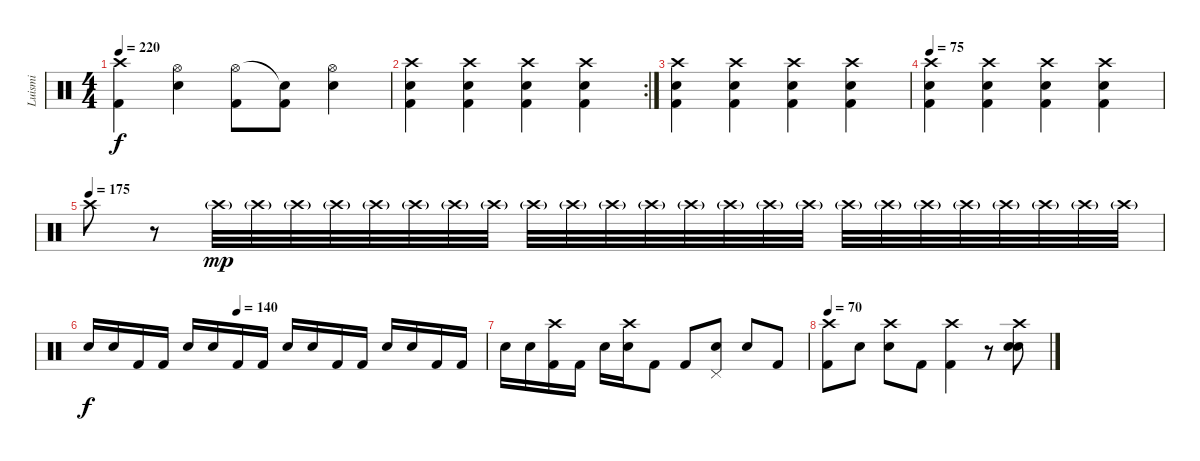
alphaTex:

\track ("Luismi" "Luismi") {instrument percussion}
\staff {score}
\articulation defaults
\ts (4 4)
\tempo 220
\clef neutral
\ks c
("Crash high (hit)" "Kick (hit) 2").4{dy f} ("Hi-Hat (open)" "Snare (hit) 2").4 ("Hi-Hat (open)" "Kick (hit) 2").8 ("Snare (hit)"{t} "Kick (hit) 2").8 ("Hi-Hat (open)" "Snare (hit) 2").4 |
\rc 2
("Crash high (hit)" "Snare (hit) 2" "Kick (hit) 2").4 ("Crash high (hit)" "Snare (hit) 2" "Kick (hit) 2").4 ("Crash high (hit)" "Snare (hit) 2" "Kick (hit) 2").4 ("Crash high (hit)" "Snare (hit) 2" "Kick (hit) 2").4 |
("Crash high (hit)" "Snare (hit) 2" "Kick (hit) 2").4 ("Crash high (hit)" "Snare (hit) 2" "Kick (hit) 2").4 ("Crash high (hit)" "Snare (hit) 2" "Kick (hit) 2").4 ("Crash high (hit)" "Snare (hit) 2" "Kick (hit) 2").4 |
\tempo 75
("Crash high (hit)" "Snare (hit) 2" "Kick (hit) 2").4 ("Crash high (hit)" "Snare (hit) 2" "Kick (hit) 2").4 ("Crash high (hit)" "Snare (hit) 2" "Kick (hit) 2").4 ("Crash high (hit)" "Snare (hit) 2" "Kick (hit) 2").4 |
\tempo (175)
"Crash high (hit)".8 r.8{volume 0} "Crash high (hit)"{g}.32{dy mp volume 16} "Crash high (hit)"{g}.32 "Crash high (hit)"{g}.32 "Crash high (hit)"{g}.32 "Crash high (hit)"{g}.32 "Crash high (hit)"{g}.32 "Crash high (hit)"{g}.32 "Crash high (hit)"{g}.32 "Crash high (hit)"{g}.32 "Crash high (hit)"{g}.32 "Crash high (hit)"{g}.32 "Crash high (hit)"{g}.32 "Crash high (hit)"{g}.32 "Crash high (hit)"{g}.32 "Crash high (hit)"{g}.32 "Crash high (hit)"{g}.32 "Crash high (hit)"{g}.32 "Crash high (hit)"{g}.32 "Crash high (hit)"{g}.32 "Crash high (hit)"{g}.32 "Crash high (hit)"{g}.32 "Crash high (hit)"{g}.32 "Crash high (hit)"{g}.32 "Crash high (hit)"{g}.32 |
\tempo (140 0.375)
"Electric Snare (hit)".16{dy f} "Snare (hit) 2".16 "Kick (hit) 2".16 "Kick (hit) 2".16 "Electric Snare (hit)".16 "Snare (hit) 2".16 "Kick (hit) 2".16 "Kick (hit) 2".16 "Electric Snare (hit)".16 "Snare (hit) 2".16 "Kick (hit) 2".16 "Kick (hit) 2".16 "Electric Snare (hit)".16 "Snare (hit) 2".16 "Kick (hit) 2".16 "Kick (hit) 2".16 |
"Electric Snare (hit)".16 "Snare (hit) 2".16 ("Kick (hit) 2" "Crash high (hit)").16 "Kick (hit) 2".16 "Electric Snare (hit)".16 ("Snare (hit) 2" "Crash high (hit)").16 "Kick (hit) 2".8 "Kick (hit) 2".8 ("Electric Snare (hit)" "Pedal Hi-Hat (hit)").8 "Snare (hit) 2".8 "Kick (hit) 2".8 |
\tempo 70
("Kick (hit) 2" "Crash high (hit)").8 "Electric Snare (hit)".8 ("Snare (hit) 2" "Crash high (hit)").8 "Kick (hit) 2".8 ("Kick (hit) 2" "Crash high (hit)").4 r.8 ("Crash high (hit)" "Electric Snare (hit)" "Snare (hit) 2").8
